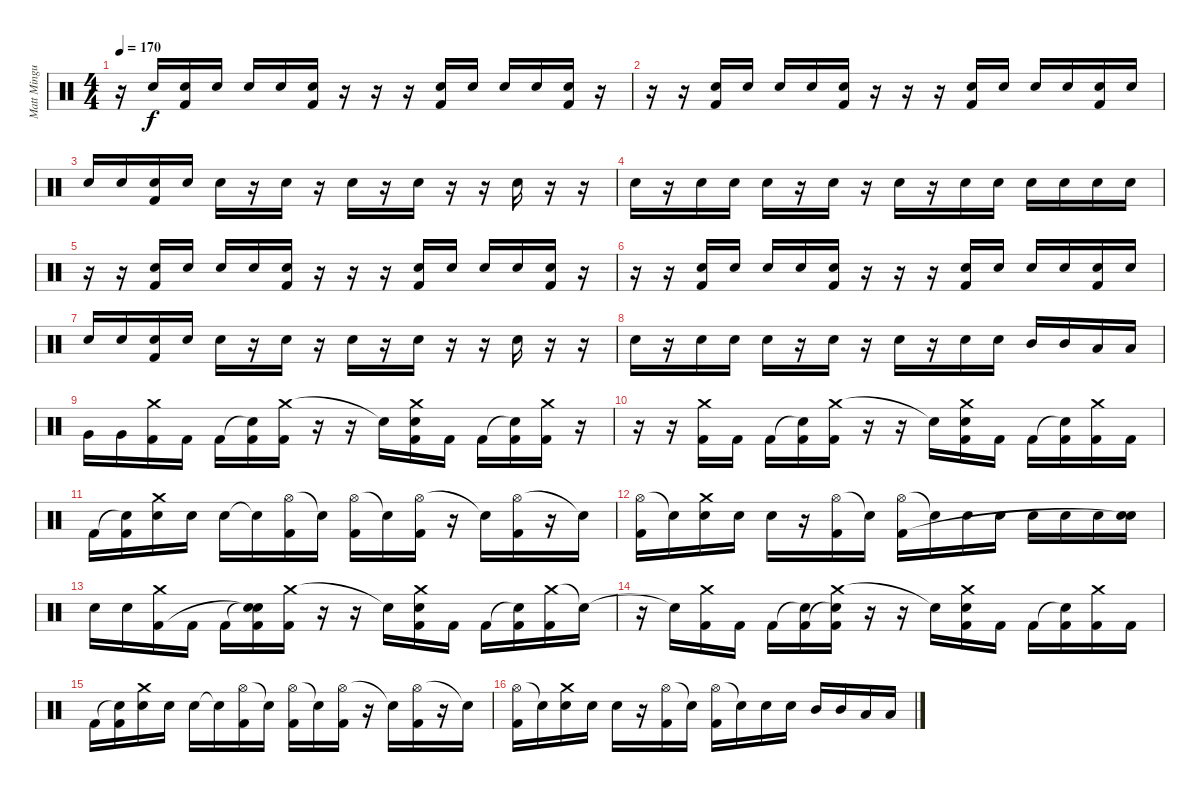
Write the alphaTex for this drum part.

\track ("Matt Mingus" "Matt Mingu") {instrument percussion}
\staff {score}
\articulation defaults
\ts (4 4)
\tempo 170
\clef neutral
\ks c
r.16{dy f} "Snare (hit)"{t}.16 ("Electric Snare (hit)" "Kick (hit) 2").16 "Electric Snare (hit)".16 "Electric Snare (hit)".16 "Electric Snare (hit)".16 ("Electric Snare (hit)" "Kick (hit) 2").16 r.16 r.16 r.16 ("Electric Snare (hit)" "Kick (hit) 2").16 "Electric Snare (hit)".16 "Electric Snare (hit)".16 "Electric Snare (hit)".16 ("Electric Snare (hit)" "Kick (hit) 2").16 r.16 |
r.16 r.16 ("Electric Snare (hit)" "Kick (hit) 2").16 "Electric Snare (hit)".16 "Electric Snare (hit)".16 "Electric Snare (hit)".16 ("Electric Snare (hit)" "Kick (hit) 2").16 r.16 r.16 r.16 ("Electric Snare (hit)" "Kick (hit) 2").16 "Electric Snare (hit)".16 "Electric Snare (hit)".16 "Electric Snare (hit)".16 ("Electric Snare (hit)" "Kick (hit) 2").16 "Electric Snare (hit)".16 |
"Electric Snare (hit)".16 "Electric Snare (hit)".16 ("Electric Snare (hit)" "Kick (hit) 2").16 "Electric Snare (hit)".16 "Electric Snare (hit)".16 r.16 "Electric Snare (hit)".16 r.16 "Electric Snare (hit)".16 r.16 "Electric Snare (hit)".16 r.16 r.16 "Electric Snare (hit)".16 r.16 r.16 |
"Electric Snare (hit)".16 r.16 "Electric Snare (hit)".16 "Electric Snare (hit)".16 "Electric Snare (hit)".16 r.16 "Electric Snare (hit)".16 r.16 "Electric Snare (hit)".16 r.16 "Electric Snare (hit)".16 "Electric Snare (hit)".16 "Electric Snare (hit)".16 "Electric Snare (hit)".16 "Electric Snare (hit)".16 "Electric Snare (hit)".16 |
r.16 r.16 ("Electric Snare (hit)" "Kick (hit) 2").16 "Electric Snare (hit)".16 "Electric Snare (hit)".16 "Electric Snare (hit)".16 ("Electric Snare (hit)" "Kick (hit) 2").16 r.16 r.16 r.16 ("Electric Snare (hit)" "Kick (hit) 2").16 "Electric Snare (hit)".16 "Electric Snare (hit)".16 "Electric Snare (hit)".16 ("Electric Snare (hit)" "Kick (hit) 2").16 r.16 |
r.16 r.16 ("Electric Snare (hit)" "Kick (hit) 2").16 "Electric Snare (hit)".16 "Electric Snare (hit)".16 "Electric Snare (hit)".16 ("Electric Snare (hit)" "Kick (hit) 2").16 r.16 r.16 r.16 ("Electric Snare (hit)" "Kick (hit) 2").16 "Electric Snare (hit)".16 "Electric Snare (hit)".16 "Electric Snare (hit)".16 ("Electric Snare (hit)" "Kick (hit) 2").16 "Electric Snare (hit)".16 |
"Electric Snare (hit)".16 "Electric Snare (hit)".16 ("Electric Snare (hit)" "Kick (hit) 2").16 "Electric Snare (hit)".16 "Electric Snare (hit)".16 r.16 "Electric Snare (hit)".16 r.16 "Electric Snare (hit)".16 r.16 "Electric Snare (hit)".16 r.16 r.16 "Electric Snare (hit)".16 r.16 r.16 |
"Electric Snare (hit)".16 r.16 "Electric Snare (hit)".16 "Electric Snare (hit)".16 "Electric Snare (hit)".16 r.16 "Electric Snare (hit)".16 r.16 "Electric Snare (hit)".16 r.16 "Electric Snare (hit)".16 "Electric Snare (hit)".16 "Mid Tom (hit)".16 "Mid Tom (hit)".16 "Low Tom (hit)".16 "Low Tom (hit)".16 |
"Very Low Tom (hit)".16 "Very Low Tom (hit)".16 ("Crash medium (hit)" "Kick (hit) 2").16 "Kick (hit) 2".16 "Kick (hit) 2".16 ("Snare (hit)"{t} "Kick (hit) 2").16 ("Crash medium (hit)" "Kick (hit) 2").16 r.16 r.16 "Snare (hit)"{t}.16 ("Crash medium (hit)" "Electric Snare (hit)" "Kick (hit) 2").16 "Kick (hit) 2".16 "Kick (hit) 2".16 ("Snare (hit)"{t} "Kick (hit) 2").16 ("Crash medium (hit)" "Kick (hit) 2").16 r.16 |
r.16 r.16 ("Crash medium (hit)" "Kick (hit) 2").16 "Kick (hit) 2".16 "Kick (hit) 2".16 ("Snare (hit)"{t} "Kick (hit) 2").16 ("Crash medium (hit)" "Kick (hit) 2").16 r.16 r.16 "Snare (hit)"{t}.16 ("Crash medium (hit)" "Electric Snare (hit)" "Kick (hit) 2").16 "Kick (hit) 2".16 "Kick (hit) 2".16 ("Snare (hit)"{t} "Kick (hit) 2").16 ("Crash medium (hit)" "Kick (hit) 2").16 "Kick (hit) 2".16 |
"Kick (hit) 2".16 ("Snare (hit)"{t} "Kick (hit) 2").16 ("Crash medium (hit)" "Electric Snare (hit)").16 "Electric Snare (hit)".16 "Electric Snare (hit)".16 "Snare (hit)"{t}.16 ("Hi-Hat (open)" "Kick (hit) 2").16 "Snare (hit)"{t}.16 ("Hi-Hat (open)" "Kick (hit) 2").16 "Snare (hit)"{t}.16 ("Hi-Hat (open)" "Kick (hit) 2").16 r.16 "Snare (hit)"{t}.16 ("Hi-Hat (open)" "Kick (hit) 2").16 r.16 "Snare (hit)"{t}.16 |
("Hi-Hat (open)" "Kick (hit) 2").16 "Snare (hit)"{t}.16 ("Electric Snare (hit)" "Crash medium (hit)").16 "Electric Snare (hit)".16 "Electric Snare (hit)".16 r.16 ("Hi-Hat (open)" "Kick (hit) 2").16 "Snare (hit)"{t}.16 ("Hi-Hat (open)" "Kick (hit) 2").16 "Snare (hit)"{t}.16 "Electric Snare (hit)".16 "Electric Snare (hit)".16 "Electric Snare (hit)".16 "Electric Snare (hit)".16 "Electric Snare (hit)".16 ("Electric Snare (hit)" "Snare (hit)"{t}).16 |
"Electric Snare (hit)".16 "Electric Snare (hit)".16 ("Crash medium (hit)" "Kick (hit) 2").16 "Kick (hit) 2".16 "Kick (hit) 2".16 ("Snare (hit)"{t} "Snare (hit)"{t} "Kick (hit) 2").16 ("Crash medium (hit)" "Kick (hit) 2").16 r.16 r.16 "Snare (hit)"{t}.16 ("Crash medium (hit)" "Electric Snare (hit)" "Kick (hit) 2").16 "Kick (hit) 2".16 "Kick (hit) 2".16 ("Snare (hit)"{t} "Kick (hit) 2").16 ("Crash medium (hit)" "Kick (hit) 2").16 "Snare (hit)"{t}.16 |
r.16 "Snare (hit)"{t}.16 ("Crash medium (hit)" "Kick (hit) 2").16 "Kick (hit) 2".16 "Kick (hit) 2".16 ("Snare (hit)"{t} "Kick (hit) 2").16 ("Crash medium (hit)" "Snare (hit)"{t} "Kick (hit) 2").16 r.16 r.16 "Snare (hit)"{t}.16 ("Crash medium (hit)" "Electric Snare (hit)" "Kick (hit) 2").16 "Kick (hit) 2".16 "Kick (hit) 2".16 ("Snare (hit)"{t} "Kick (hit) 2").16 ("Crash medium (hit)" "Kick (hit) 2").16 "Kick (hit) 2".16 |
"Kick (hit) 2".16 ("Snare (hit)"{t} "Kick (hit) 2").16 ("Crash medium (hit)" "Electric Snare (hit)").16 "Electric Snare (hit)".16 "Electric Snare (hit)".16 "Snare (hit)"{t}.16 ("Hi-Hat (open)" "Kick (hit) 2").16 "Snare (hit)"{t}.16 ("Hi-Hat (open)" "Kick (hit) 2").16 "Snare (hit)"{t}.16 ("Hi-Hat (open)" "Kick (hit) 2").16 r.16 "Snare (hit)"{t}.16 ("Hi-Hat (open)" "Kick (hit) 2").16 r.16 "Snare (hit)"{t}.16 |
("Hi-Hat (open)" "Kick (hit) 2").16 "Snare (hit)"{t}.16 ("Electric Snare (hit)" "Crash medium (hit)").16 "Electric Snare (hit)".16 "Electric Snare (hit)".16 r.16 ("Hi-Hat (open)" "Kick (hit) 2").16 "Snare (hit)"{t}.16 ("Hi-Hat (open)" "Kick (hit) 2").16 "Snare (hit)"{t}.16 "Electric Snare (hit)".16 "Electric Snare (hit)".16 "Mid Tom (hit)".16 "Mid Tom (hit)".16 "Low Tom (hit)".16 "Low Tom (hit)".16
